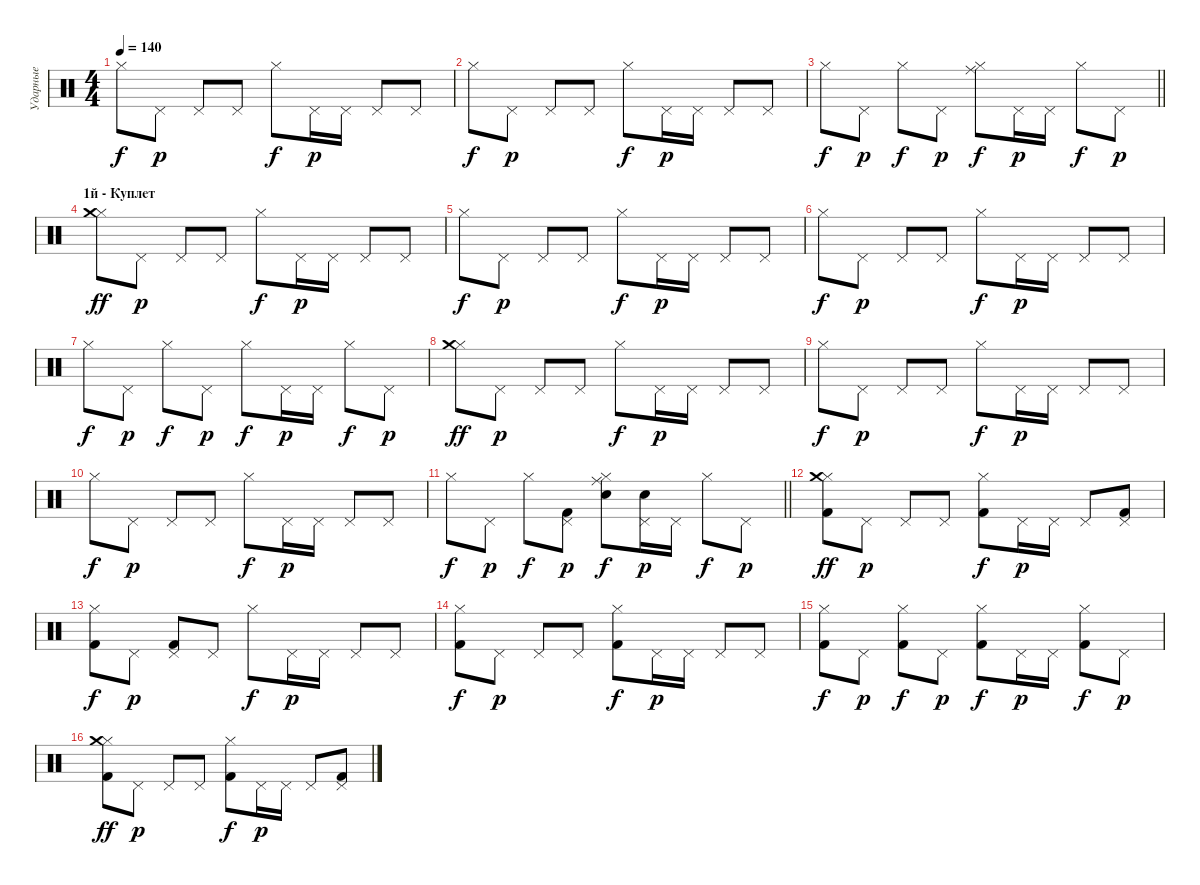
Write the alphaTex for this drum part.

\track ("Ударные" "Ударные") {instrument percussion}
\staff {score}
\articulation defaults
\ts (4 4)
\tempo 140
\clef neutral
\ks c "Hi-Hat (closed)".8{dy f} "Pedal Hi-Hat (hit)".8{dy p} "Pedal Hi-Hat (hit)".8 "Pedal Hi-Hat (hit)".8 "Hi-Hat (closed)".8{dy f} "Pedal Hi-Hat (hit)".16{dy p} "Pedal Hi-Hat (hit)".16 "Pedal Hi-Hat (hit)".8 "Pedal Hi-Hat (hit)".8
|
"Hi-Hat (closed)".8{dy f} "Pedal Hi-Hat (hit)".8{dy p} "Pedal Hi-Hat (hit)".8 "Pedal Hi-Hat (hit)".8 "Hi-Hat (closed)".8{dy f} "Pedal Hi-Hat (hit)".16{dy p} "Pedal Hi-Hat (hit)".16 "Pedal Hi-Hat (hit)".8 "Pedal Hi-Hat (hit)".8 |
\barLineRight lightlight "Hi-Hat (closed)".8{dy f} "Pedal Hi-Hat (hit)".8{dy p} "Hi-Hat (closed)".8{dy f} "Pedal Hi-Hat (hit)".8{dy p}
("Ride (middle)" "Hi-Hat (closed)").8{dy f} "Pedal Hi-Hat (hit)".16{dy p} "Pedal Hi-Hat (hit)".16 "Hi-Hat (closed)".8{dy f} "Pedal Hi-Hat (hit)".8{dy p} |
\section ("" "1й - Куплет")
("Hi-Hat (closed)" "Crash medium (hit)").8{dy ff} "Pedal Hi-Hat (hit)".8{dy p} "Pedal Hi-Hat (hit)".8 "Pedal Hi-Hat (hit)".8 "Hi-Hat (closed)".8{dy f} "Pedal Hi-Hat (hit)".16{dy p} "Pedal Hi-Hat (hit)".16 "Pedal Hi-Hat (hit)".8 "Pedal Hi-Hat (hit)".8 |
"Hi-Hat (closed)".8{dy f} "Pedal Hi-Hat (hit)".8{dy p} "Pedal Hi-Hat (hit)".8 "Pedal Hi-Hat (hit)".8 "Hi-Hat (closed)".8{dy f} "Pedal Hi-Hat (hit)".16{dy p} "Pedal Hi-Hat (hit)".16 "Pedal Hi-Hat (hit)".8 "Pedal Hi-Hat (hit)".8 |
"Hi-Hat (closed)".8{dy f} "Pedal Hi-Hat (hit)".8{dy p} "Pedal Hi-Hat (hit)".8 "Pedal Hi-Hat (hit)".8 "Hi-Hat (closed)".8{dy f} "Pedal Hi-Hat (hit)".16{dy p} "Pedal Hi-Hat (hit)".16 "Pedal Hi-Hat (hit)".8 "Pedal Hi-Hat (hit)".8 |
"Hi-Hat (closed)".8{dy f} "Pedal Hi-Hat (hit)".8{dy p} "Hi-Hat (closed)".8{dy f} "Pedal Hi-Hat (hit)".8{dy p} "Hi-Hat (closed)".8{dy f} "Pedal Hi-Hat (hit)".16{dy p} "Pedal Hi-Hat (hit)".16 "Hi-Hat (closed)".8{dy f} "Pedal Hi-Hat (hit)".8{dy p} |
("Hi-Hat (closed)" "Crash medium (hit)").8{dy ff} "Pedal Hi-Hat (hit)".8{dy p} "Pedal Hi-Hat (hit)".8 "Pedal Hi-Hat (hit)".8 "Hi-Hat (closed)".8{dy f} "Pedal Hi-Hat (hit)".16{dy p} "Pedal Hi-Hat (hit)".16 "Pedal Hi-Hat (hit)".8 "Pedal Hi-Hat (hit)".8 |
"Hi-Hat (closed)".8{dy f} "Pedal Hi-Hat (hit)".8{dy p} "Pedal Hi-Hat (hit)".8 "Pedal Hi-Hat (hit)".8 "Hi-Hat (closed)".8{dy f} "Pedal Hi-Hat (hit)".16{dy p} "Pedal Hi-Hat (hit)".16 "Pedal Hi-Hat (hit)".8 "Pedal Hi-Hat (hit)".8 |
"Hi-Hat (closed)".8{dy f} "Pedal Hi-Hat (hit)".8{dy p} "Pedal Hi-Hat (hit)".8 "Pedal Hi-Hat (hit)".8 "Hi-Hat (closed)".8{dy f} "Pedal Hi-Hat (hit)".16{dy p} "Pedal Hi-Hat (hit)".16 "Pedal Hi-Hat (hit)".8 "Pedal Hi-Hat (hit)".8 |
\barLineRight lightlight "Hi-Hat (closed)".8{dy f} "Pedal Hi-Hat (hit)".8{dy p} "Hi-Hat (closed)".8{dy f}
("Pedal Hi-Hat (hit)" "Kick (hit) 2").8{dy p} ("Ride (middle)" "Hi-Hat (closed)" "Snare (hit) 2").8{dy f} ("Pedal Hi-Hat (hit)" "Snare (hit) 2").16{dy p} "Pedal Hi-Hat (hit)".16 "Hi-Hat (closed)".8{dy f} "Pedal Hi-Hat (hit)".8{dy p} |
("Hi-Hat (closed)" "Kick (hit) 2" "Crash medium (hit)").8{dy ff} "Pedal Hi-Hat (hit)".8{dy p} "Pedal Hi-Hat (hit)".8 "Pedal Hi-Hat (hit)".8 ("Kick (hit) 2" "Hi-Hat (closed)").8{dy f} "Pedal Hi-Hat (hit)".16{dy p} "Pedal Hi-Hat (hit)".16 "Pedal Hi-Hat (hit)".8 ("Pedal Hi-Hat (hit)" "Kick (hit) 2").8 |
("Kick (hit) 2" "Hi-Hat (closed)").8{dy f} "Pedal Hi-Hat (hit)".8{dy p} ("Pedal Hi-Hat (hit)" "Kick (hit) 2").8 "Pedal Hi-Hat (hit)".8 "Hi-Hat (closed)".8{dy f} "Pedal Hi-Hat (hit)".16{dy p} "Pedal Hi-Hat (hit)".16 "Pedal Hi-Hat (hit)".8 "Pedal Hi-Hat (hit)".8 |
("Hi-Hat (closed)" "Kick (hit) 2").8{dy f} "Pedal Hi-Hat (hit)".8{dy p} "Pedal Hi-Hat (hit)".8 "Pedal Hi-Hat (hit)".8 ("Kick (hit) 2" "Hi-Hat (closed)").8{dy f} "Pedal Hi-Hat (hit)".16{dy p} "Pedal Hi-Hat (hit)".16 "Pedal Hi-Hat (hit)".8 "Pedal Hi-Hat (hit)".8 |
("Kick (hit) 2" "Hi-Hat (closed)").8{dy f} "Pedal Hi-Hat (hit)".8{dy p} ("Kick (hit) 2" "Hi-Hat (closed)").8{dy f} "Pedal Hi-Hat (hit)".8{dy p} ("Kick (hit) 2" "Hi-Hat (closed)").8{dy f} "Pedal Hi-Hat (hit)".16{dy p} "Pedal Hi-Hat (hit)".16 ("Kick (hit) 2" "Hi-Hat (closed)").8{dy f} "Pedal Hi-Hat (hit)".8{dy p} |
("Hi-Hat (closed)" "Kick (hit) 2" "Crash medium (hit)").8{dy ff} "Pedal Hi-Hat (hit)".8{dy p} "Pedal Hi-Hat (hit)".8 "Pedal Hi-Hat (hit)".8 ("Kick (hit) 2" "Hi-Hat (closed)").8{dy f} "Pedal Hi-Hat (hit)".16{dy p} "Pedal Hi-Hat (hit)".16 "Pedal Hi-Hat (hit)".8 ("Pedal Hi-Hat (hit)" "Kick (hit) 2").8
